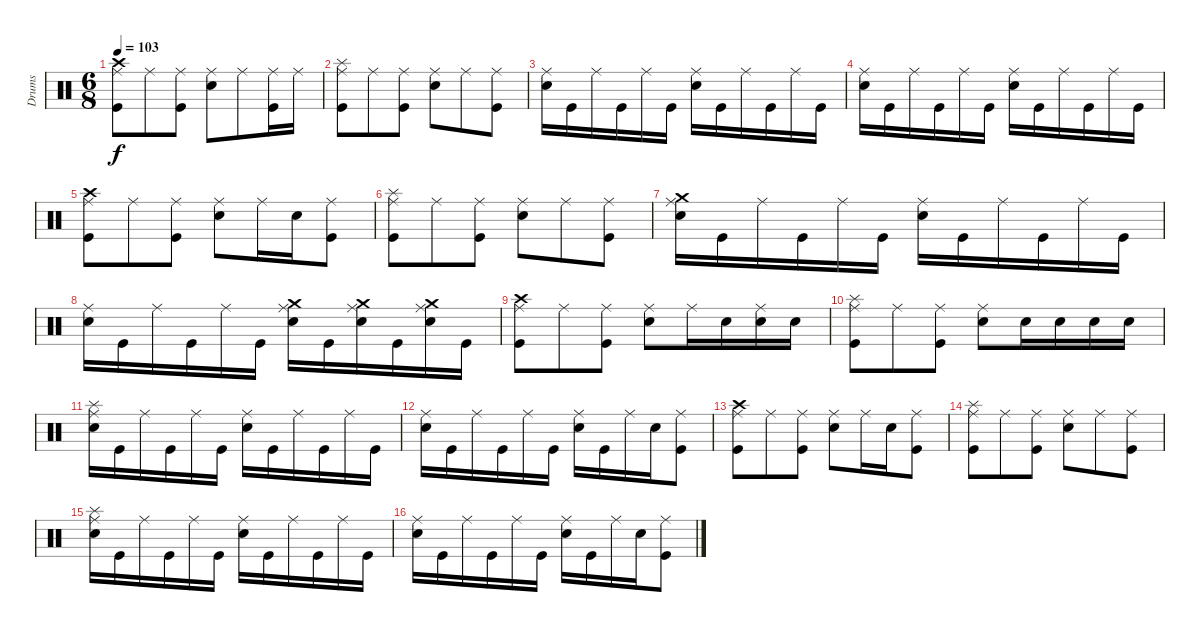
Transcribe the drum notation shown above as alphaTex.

\track ("Drums" "Drums") {instrument percussion}
\staff {score}
\articulation defaults
\ts (6 8)
\tempo 103
\clef neutral
\ks c
("Crash high (hit)" "Ride (middle)" "Kick (hit)").8{dy f} "Ride (middle)".8 ("Ride (middle)" "Kick (hit)").8 ("Ride (middle)" "Electric Snare (hit)").8 "Ride (middle)".8 ("Ride (middle)" "Kick (hit)").16 "Ride (middle)".16 |
("Splash (hit)" "Ride (middle)" "Kick (hit)").8 "Ride (middle)".8 ("Ride (middle)" "Kick (hit)").8 ("Ride (middle)" "Electric Snare (hit)").8 "Ride (middle)".8 ("Ride (middle)" "Kick (hit)").8 |
("Ride (middle)" "Electric Snare (hit)").16 "Kick (hit)".16 "Ride (middle)".16 "Kick (hit)".16 "Ride (middle)".16 "Kick (hit)".16 ("Ride (middle)" "Electric Snare (hit)").16 "Kick (hit)".16 "Ride (middle)".16 "Kick (hit)".16 "Ride (middle)".16 "Kick (hit)".16 |
("Ride (middle)" "Electric Snare (hit)").16 "Kick (hit)".16 "Ride (middle)".16 "Kick (hit)".16 "Ride (middle)".16 "Kick (hit)".16 ("Ride (middle)" "Electric Snare (hit)").16 "Kick (hit)".16 "Ride (middle)".16 "Kick (hit)".16 "Ride (middle)".16 "Kick (hit)".16 |
("Crash high (hit)" "Ride (middle)" "Kick (hit)").8 "Ride (middle)".8 ("Ride (middle)" "Kick (hit)").8 ("Ride (middle)" "Electric Snare (hit)").8 "Ride (middle)".16 "Electric Snare (hit)".16 ("Ride (middle)" "Kick (hit)").8 |
("Splash (hit)" "Ride (middle)" "Kick (hit)").8 "Ride (middle)".8 ("Ride (middle)" "Kick (hit)").8 ("Ride (middle)" "Electric Snare (hit)").8 "Ride (middle)".8 ("Ride (middle)" "Kick (hit)").8 |
("Crash medium (hit)" "Ride (middle)" "Electric Snare (hit)").16 "Kick (hit)".16 "Ride (middle)".16 "Kick (hit)".16 "Ride (middle)".16 "Kick (hit)".16 ("Ride (middle)" "Electric Snare (hit)").16 "Kick (hit)".16 "Ride (middle)".16 "Kick (hit)".16 "Ride (middle)".16 "Kick (hit)".16 |
("Ride (middle)" "Electric Snare (hit)").16 "Kick (hit)".16 "Ride (middle)".16 "Kick (hit)".16 "Ride (middle)".16 "Kick (hit)".16 ("Crash medium (hit)" "Ride (middle)" "Electric Snare (hit)").16 "Kick (hit)".16 ("Crash medium (hit)" "Ride (middle)" "Electric Snare (hit)").16 "Kick (hit)".16 ("Crash medium (hit)" "Ride (middle)" "Electric Snare (hit)").16 "Kick (hit)".16 |
("Crash high (hit)" "Ride (middle)" "Kick (hit)").8 "Ride (middle)".8 ("Ride (middle)" "Kick (hit)").8 ("Ride (middle)" "Electric Snare (hit)").8 "Ride (middle)".16 "Electric Snare (hit)".16 ("Ride (middle)" "Electric Snare (hit)").16 "Electric Snare (hit)".16 |
("Splash (hit)" "Ride (middle)" "Kick (hit)").8 "Ride (middle)".8 ("Ride (middle)" "Kick (hit)").8 ("Ride (middle)" "Electric Snare (hit)").8 "Electric Snare (hit)".16 "Electric Snare (hit)".16 "Electric Snare (hit)".16 "Electric Snare (hit)".16 |
("Splash (hit)" "Ride (middle)" "Electric Snare (hit)").16 "Kick (hit)".16 "Ride (middle)".16 "Kick (hit)".16 "Ride (middle)".16 "Kick (hit)".16 ("Ride (middle)" "Electric Snare (hit)").16 "Kick (hit)".16 "Ride (middle)".16 "Kick (hit)".16 "Ride (middle)".16 "Kick (hit)".16 |
("Ride (middle)" "Electric Snare (hit)").16 "Kick (hit)".16 "Ride (middle)".16 "Kick (hit)".16 "Ride (middle)".16 "Kick (hit)".16 ("Ride (middle)" "Electric Snare (hit)").16 "Kick (hit)".16 "Ride (middle)".16 "Electric Snare (hit)".16 ("Ride (middle)" "Kick (hit)").8 |
("Crash high (hit)" "Ride (middle)" "Kick (hit)").8 "Ride (middle)".8 ("Ride (middle)" "Kick (hit)").8 ("Ride (middle)" "Electric Snare (hit)").8 "Ride (middle)".16 "Electric Snare (hit)".16 ("Ride (middle)" "Kick (hit)").8 |
("Splash (hit)" "Ride (middle)" "Kick (hit)").8 "Ride (middle)".8 ("Ride (middle)" "Kick (hit)").8 ("Ride (middle)" "Electric Snare (hit)").8 "Ride (middle)".8 ("Ride (middle)" "Kick (hit)").8 |
("Splash (hit)" "Ride (middle)" "Electric Snare (hit)").16 "Kick (hit)".16 "Ride (middle)".16 "Kick (hit)".16 "Ride (middle)".16 "Kick (hit)".16 ("Ride (middle)" "Electric Snare (hit)").16 "Kick (hit)".16 "Ride (middle)".16 "Kick (hit)".16 "Ride (middle)".16 "Kick (hit)".16 |
("Ride (middle)" "Electric Snare (hit)").16 "Kick (hit)".16 "Ride (middle)".16 "Kick (hit)".16 "Ride (middle)".16 "Kick (hit)".16 ("Ride (middle)" "Electric Snare (hit)").16 "Kick (hit)".16 "Ride (middle)".16 "Electric Snare (hit)".16 ("Ride (middle)" "Kick (hit)").8
